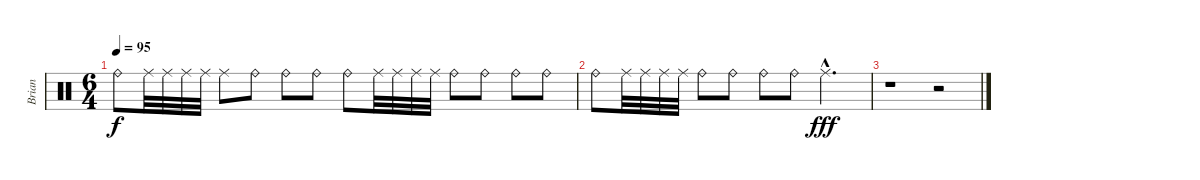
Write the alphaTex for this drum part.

\track ("Brian" "Brian") {instrument percussion}
\staff {score}
\articulation defaults
\ts (6 4)
\tempo 95
\clef neutral
\ks c "Ride (bell)".8{dy f} "Ride (middle)".32 "Ride (middle)".32 "Ride (middle)".32 "Ride (middle)".32 "Ride (middle)".8 "Ride (bell)".8 "Ride (bell)".8 "Ride (bell)".8 "Ride (bell)".8 "Ride (middle)".32 "Ride (middle)".32 "Ride (middle)".32 "Ride (middle)".32 "Ride (bell)".8 "Ride (bell)".8 "Ride (bell)".8 "Ride (bell)".8
|
"Ride (bell)".8 "Ride (middle)".32 "Ride (middle)".32 "Ride (middle)".32 "Ride (middle)".32 "Ride (bell)".8 "Ride (bell)".8 "Ride (bell)".8 "Ride (bell)".8 "Ride (middle)"{hac}.2{d dy fff} |
r.1 r.2
